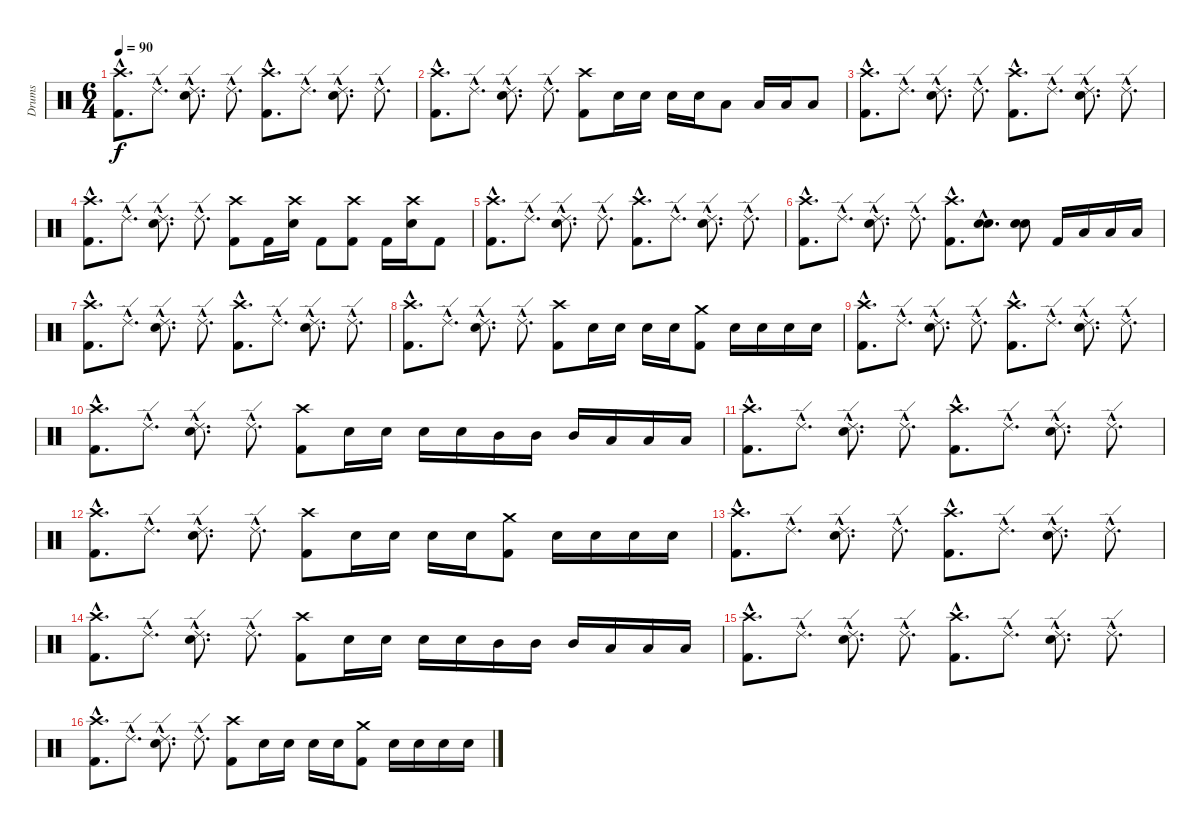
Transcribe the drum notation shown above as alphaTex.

\track ("Drums" "Drums") {instrument percussion}
\staff {score}
\articulation defaults
\ts (6 4)
\tempo 90
\clef neutral
\ks c
("Crash high (hit)"{hac} "Kick (hit) 2"{hac}).8{d dy f} "Ride (edge) 2"{hac}.8{d} ("Ride (edge) 2"{hac} "Electric Snare (hit)"{hac}).8{d} "Ride (edge) 2"{hac}.8{d} ("Crash high (hit)"{hac} "Kick (hit) 2"{hac}).8{d} "Ride (edge) 2"{hac}.8{d} ("Ride (edge) 2"{hac} "Electric Snare (hit)"{hac}).8{d} "Ride (edge) 2"{hac}.8{d} |
("Crash high (hit)"{hac} "Kick (hit) 2"{hac}).8{d} "Ride (edge) 2"{hac}.8{d} ("Ride (edge) 2"{hac} "Electric Snare (hit)"{hac}).8{d} "Ride (edge) 2"{hac}.8{d} ("Crash high (hit)" "Kick (hit) 2").8 "Electric Snare (hit)".16 "Electric Snare (hit)".16 "Electric Snare (hit)".16 "Electric Snare (hit)".16 "Low Tom (hit)".8 "Low Tom (hit)".16 "Low Tom (hit)".16 "Low Tom (hit)".8 |
("Crash high (hit)"{hac} "Kick (hit) 2"{hac}).8{d} "Ride (edge) 2"{hac}.8{d} ("Ride (edge) 2"{hac} "Electric Snare (hit)"{hac}).8{d} "Ride (edge) 2"{hac}.8{d} ("Crash high (hit)"{hac} "Kick (hit) 2"{hac}).8{d} "Ride (edge) 2"{hac}.8{d} ("Ride (edge) 2"{hac} "Electric Snare (hit)"{hac}).8{d} "Ride (edge) 2"{hac}.8{d} |
("Crash high (hit)"{hac} "Kick (hit) 2"{hac}).8{d} "Ride (edge) 2"{hac}.8{d} ("Ride (edge) 2"{hac} "Electric Snare (hit)"{hac}).8{d} "Ride (edge) 2"{hac}.8{d} ("Crash high (hit)" "Kick (hit) 2").8 "Kick (hit) 2".16 ("Crash high (hit)" "Electric Snare (hit)").16 "Kick (hit) 2".8 ("Crash high (hit)" "Kick (hit) 2").8 "Kick (hit) 2".16 ("Crash high (hit)" "Electric Snare (hit)").16 "Kick (hit) 2".8 |
("Crash high (hit)"{hac} "Kick (hit) 2"{hac}).8{d} "Ride (edge) 2"{hac}.8{d} ("Ride (edge) 2"{hac} "Electric Snare (hit)"{hac}).8{d} "Ride (edge) 2"{hac}.8{d} ("Crash high (hit)"{hac} "Kick (hit) 2"{hac}).8{d} "Ride (edge) 2"{hac}.8{d} ("Ride (edge) 2"{hac} "Electric Snare (hit)"{hac}).8{d} "Ride (edge) 2"{hac}.8{d} |
("Crash high (hit)"{hac} "Kick (hit) 2"{hac}).8{d} "Ride (edge) 2"{hac}.8{d} ("Ride (edge) 2"{hac} "Electric Snare (hit)"{hac}).8{d} "Ride (edge) 2"{hac}.8{d} ("Crash high (hit)"{hac} "Kick (hit) 2"{hac}).8{d} ("Electric Snare (hit)"{hac} "Electric Snare (hit)"{hac}).8{d bu 60} ("Electric Snare (hit)" "Electric Snare (hit)").8{bu 60} "Kick (hit) 2".16 "Low Tom (hit)".16 "Low Tom (hit)".16 "Low Tom (hit)".16 |
("Crash high (hit)"{hac} "Kick (hit) 2"{hac}).8{d} "Ride (edge) 2"{hac}.8{d} ("Ride (edge) 2"{hac} "Electric Snare (hit)"{hac}).8{d} "Ride (edge) 2"{hac}.8{d} ("Crash high (hit)"{hac} "Kick (hit) 2"{hac}).8{d} "Ride (edge) 2"{hac}.8{d} ("Ride (edge) 2"{hac} "Electric Snare (hit)"{hac}).8{d} "Ride (edge) 2"{hac}.8{d} |
("Crash high (hit)"{hac} "Kick (hit) 2"{hac}).8{d} "Ride (edge) 2"{hac}.8{d} ("Ride (edge) 2"{hac} "Electric Snare (hit)"{hac}).8{d} "Ride (edge) 2"{hac}.8{d} ("Crash high (hit)" "Kick (hit) 2").8 "Electric Snare (hit)".16 "Electric Snare (hit)".16 "Electric Snare (hit)".16 "Electric Snare (hit)".16 ("Crash medium (hit)" "Kick (hit) 2").8 "Electric Snare (hit)".16 "Electric Snare (hit)".16 "Electric Snare (hit)".16 "Electric Snare (hit)".16 |
("Crash high (hit)"{hac} "Kick (hit) 2"{hac}).8{d} "Ride (edge) 2"{hac}.8{d} ("Ride (edge) 2"{hac} "Electric Snare (hit)"{hac}).8{d} "Ride (edge) 2"{hac}.8{d} ("Crash high (hit)"{hac} "Kick (hit) 2"{hac}).8{d} "Ride (edge) 2"{hac}.8{d} ("Ride (edge) 2"{hac} "Electric Snare (hit)"{hac}).8{d} "Ride (edge) 2"{hac}.8{d} |
("Crash high (hit)"{hac} "Kick (hit) 2"{hac}).8{d} "Ride (edge) 2"{hac}.8{d} ("Ride (edge) 2"{hac} "Electric Snare (hit)"{hac}).8{d} "Ride (edge) 2"{hac}.8{d} ("Crash high (hit)" "Kick (hit) 2").8 "Electric Snare (hit)".16 "Electric Snare (hit)".16 "Electric Snare (hit)".16 "Electric Snare (hit)".16 "Mid Tom (hit)".16 "Mid Tom (hit)".16 "Mid Tom (hit)".16 "Low Tom (hit)".16 "Low Tom (hit)".16 "Low Tom (hit)".16 |
("Crash high (hit)"{hac} "Kick (hit) 2"{hac}).8{d} "Ride (edge) 2"{hac}.8{d} ("Ride (edge) 2"{hac} "Electric Snare (hit)"{hac}).8{d} "Ride (edge) 2"{hac}.8{d} ("Crash high (hit)"{hac} "Kick (hit) 2"{hac}).8{d} "Ride (edge) 2"{hac}.8{d} ("Ride (edge) 2"{hac} "Electric Snare (hit)"{hac}).8{d} "Ride (edge) 2"{hac}.8{d} |
("Crash high (hit)"{hac} "Kick (hit) 2"{hac}).8{d} "Ride (edge) 2"{hac}.8{d} ("Ride (edge) 2"{hac} "Electric Snare (hit)"{hac}).8{d} "Ride (edge) 2"{hac}.8{d} ("Crash high (hit)" "Kick (hit) 2").8 "Electric Snare (hit)".16 "Electric Snare (hit)".16 "Electric Snare (hit)".16 "Electric Snare (hit)".16 ("Crash medium (hit)" "Kick (hit) 2").8 "Electric Snare (hit)".16 "Electric Snare (hit)".16 "Electric Snare (hit)".16 "Electric Snare (hit)".16 |
("Crash high (hit)"{hac} "Kick (hit) 2"{hac}).8{d} "Ride (edge) 2"{hac}.8{d} ("Ride (edge) 2"{hac} "Electric Snare (hit)"{hac}).8{d} "Ride (edge) 2"{hac}.8{d} ("Crash high (hit)"{hac} "Kick (hit) 2"{hac}).8{d} "Ride (edge) 2"{hac}.8{d} ("Ride (edge) 2"{hac} "Electric Snare (hit)"{hac}).8{d} "Ride (edge) 2"{hac}.8{d} |
("Crash high (hit)"{hac} "Kick (hit) 2"{hac}).8{d} "Ride (edge) 2"{hac}.8{d} ("Ride (edge) 2"{hac} "Electric Snare (hit)"{hac}).8{d} "Ride (edge) 2"{hac}.8{d} ("Crash high (hit)" "Kick (hit) 2").8 "Electric Snare (hit)".16 "Electric Snare (hit)".16 "Electric Snare (hit)".16 "Electric Snare (hit)".16 "Mid Tom (hit)".16 "Mid Tom (hit)".16 "Mid Tom (hit)".16 "Low Tom (hit)".16 "Low Tom (hit)".16 "Low Tom (hit)".16 |
("Crash high (hit)"{hac} "Kick (hit) 2"{hac}).8{d} "Ride (edge) 2"{hac}.8{d} ("Ride (edge) 2"{hac} "Electric Snare (hit)"{hac}).8{d} "Ride (edge) 2"{hac}.8{d} ("Crash high (hit)"{hac} "Kick (hit) 2"{hac}).8{d} "Ride (edge) 2"{hac}.8{d} ("Ride (edge) 2"{hac} "Electric Snare (hit)"{hac}).8{d} "Ride (edge) 2"{hac}.8{d} |
("Crash high (hit)"{hac} "Kick (hit) 2"{hac}).8{d} "Ride (edge) 2"{hac}.8{d} ("Ride (edge) 2"{hac} "Electric Snare (hit)"{hac}).8{d} "Ride (edge) 2"{hac}.8{d} ("Crash high (hit)" "Kick (hit) 2").8 "Electric Snare (hit)".16 "Electric Snare (hit)".16 "Electric Snare (hit)".16 "Electric Snare (hit)".16 ("Crash medium (hit)" "Kick (hit) 2").8 "Electric Snare (hit)".16 "Electric Snare (hit)".16 "Electric Snare (hit)".16 "Electric Snare (hit)".16
